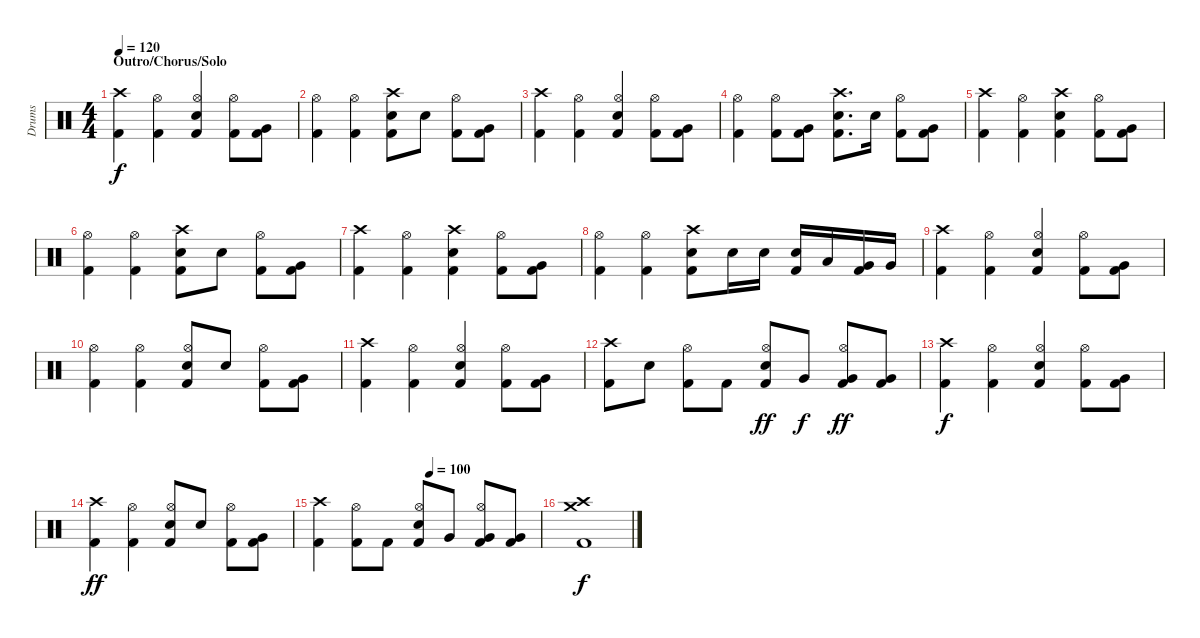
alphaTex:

\track ("Drums" "Drums") {instrument percussion}
\staff {score}
\articulation defaults
\ts (4 4)
\section ("" "Outro/Chorus/Solo")
\tempo 120
\clef neutral
\ks c
("Crash high (hit)" "Kick (hit) 2").4{dy f} ("Hi-Hat (open)" "Kick (hit) 2").4 ("Hi-Hat (open)" "Snare (hit) 2" "Kick (hit) 2").4 ("Hi-Hat (open)" "Kick (hit) 2").8 ("Very Low Tom (hit)" "Kick (hit) 2").8 |
("Hi-Hat (open)" "Kick (hit) 2").4 ("Hi-Hat (open)" "Kick (hit) 2").4 ("Crash high (hit)" "Snare (hit) 2" "Kick (hit) 2").8 "Snare (hit) 2".8 ("Hi-Hat (open)" "Kick (hit) 2").8 ("Very Low Tom (hit)" "Kick (hit) 2").8 |
("Crash high (hit)" "Kick (hit) 2").4 ("Hi-Hat (open)" "Kick (hit) 2").4 ("Hi-Hat (open)" "Snare (hit) 2" "Kick (hit) 2").4 ("Hi-Hat (open)" "Kick (hit) 2").8 ("Very Low Tom (hit)" "Kick (hit) 2").8 |
("Hi-Hat (open)" "Kick (hit) 2").4 ("Hi-Hat (open)" "Kick (hit) 2").8 ("Very Low Tom (hit)" "Kick (hit) 2").8 ("Crash high (hit)" "Snare (hit) 2" "Kick (hit) 2").8{d} "Snare (hit) 2".16 ("Hi-Hat (open)" "Kick (hit) 2").8 ("Very Low Tom (hit)" "Kick (hit) 2").8 |
("Crash high (hit)" "Kick (hit) 2").4 ("Hi-Hat (open)" "Kick (hit) 2").4 ("Crash high (hit)" "Snare (hit) 2" "Kick (hit) 2").4 ("Hi-Hat (open)" "Kick (hit) 2").8 ("Very Low Tom (hit)" "Kick (hit) 2").8 |
("Hi-Hat (open)" "Kick (hit) 2").4 ("Hi-Hat (open)" "Kick (hit) 2").4 ("Crash high (hit)" "Snare (hit) 2" "Kick (hit) 2").8 "Snare (hit) 2".8 ("Hi-Hat (open)" "Kick (hit) 2").8 ("Very Low Tom (hit)" "Kick (hit) 2").8 |
("Crash high (hit)" "Kick (hit) 2").4 ("Hi-Hat (open)" "Kick (hit) 2").4 ("Crash high (hit)" "Snare (hit) 2" "Kick (hit) 2").4 ("Hi-Hat (open)" "Kick (hit) 2").8 ("Very Low Tom (hit)" "Kick (hit) 2").8 |
("Hi-Hat (open)" "Kick (hit) 2").4 ("Hi-Hat (open)" "Kick (hit) 2").4 ("Crash high (hit)" "Snare (hit) 2" "Kick (hit) 2").8 "Snare (hit) 2".16 "Snare (hit) 2".16 ("Snare (hit) 2" "Kick (hit) 2").16 "Low Tom (hit)".16 ("Very Low Tom (hit)" "Kick (hit) 2").16 "Very Low Tom (hit)".16 |
("Crash high (hit)" "Kick (hit) 2").4 ("Hi-Hat (open)" "Kick (hit) 2").4 ("Hi-Hat (open)" "Snare (hit) 2" "Kick (hit) 2").4 ("Hi-Hat (open)" "Kick (hit) 2").8 ("Very Low Tom (hit)" "Kick (hit) 2").8 |
("Hi-Hat (open)" "Kick (hit) 2").4 ("Hi-Hat (open)" "Kick (hit) 2").4 ("Hi-Hat (open)" "Snare (hit) 2" "Kick (hit) 2").8 "Snare (hit) 2".8 ("Hi-Hat (open)" "Kick (hit) 2").8 ("Very Low Tom (hit)" "Kick (hit) 2").8 |
("Crash high (hit)" "Kick (hit) 2").4 ("Hi-Hat (open)" "Kick (hit) 2").4 ("Hi-Hat (open)" "Snare (hit) 2" "Kick (hit) 2").4 ("Hi-Hat (open)" "Kick (hit) 2").8 ("Very Low Tom (hit)" "Kick (hit) 2").8 |
("Crash high (hit)" "Kick (hit) 2").8 "Snare (hit) 2".8 ("Hi-Hat (open)" "Kick (hit) 2").8 "Kick (hit) 2".8 ("Hi-Hat (open)" "Snare (hit) 2" "Kick (hit) 2").8{dy ff} "Very Low Tom (hit)".8{dy f} ("Hi-Hat (open)" "Very Low Tom (hit)" "Kick (hit) 2").8{dy ff} ("Very Low Tom (hit)" "Kick (hit) 2").8 |
("Crash high (hit)" "Kick (hit) 2").4{dy f} ("Hi-Hat (open)" "Kick (hit) 2").4 ("Hi-Hat (open)" "Snare (hit) 2" "Kick (hit) 2").4 ("Hi-Hat (open)" "Kick (hit) 2").8 ("Very Low Tom (hit)" "Kick (hit) 2").8 |
("Crash high (hit)" "Kick (hit) 2").4{dy ff} ("Hi-Hat (open)" "Kick (hit) 2").4 ("Hi-Hat (open)" "Snare (hit) 2" "Kick (hit) 2").8 "Snare (hit) 2".8 ("Hi-Hat (open)" "Kick (hit) 2").8 ("Very Low Tom (hit)" "Kick (hit) 2").8 |
\tempo (100 0.5)
("Crash high (hit)" "Kick (hit) 2").4 ("Hi-Hat (open)" "Kick (hit) 2").8 "Kick (hit) 2".8 ("Hi-Hat (open)" "Snare (hit) 2" "Kick (hit) 2").8 "Very Low Tom (hit)".8 ("Hi-Hat (open)" "Very Low Tom (hit)" "Kick (hit) 2").8 ("Very Low Tom (hit)" "Kick (hit) 2").8 |
("Crash high (hit)" "Crash medium (hit)" "Kick (hit) 2").1{dy f}
